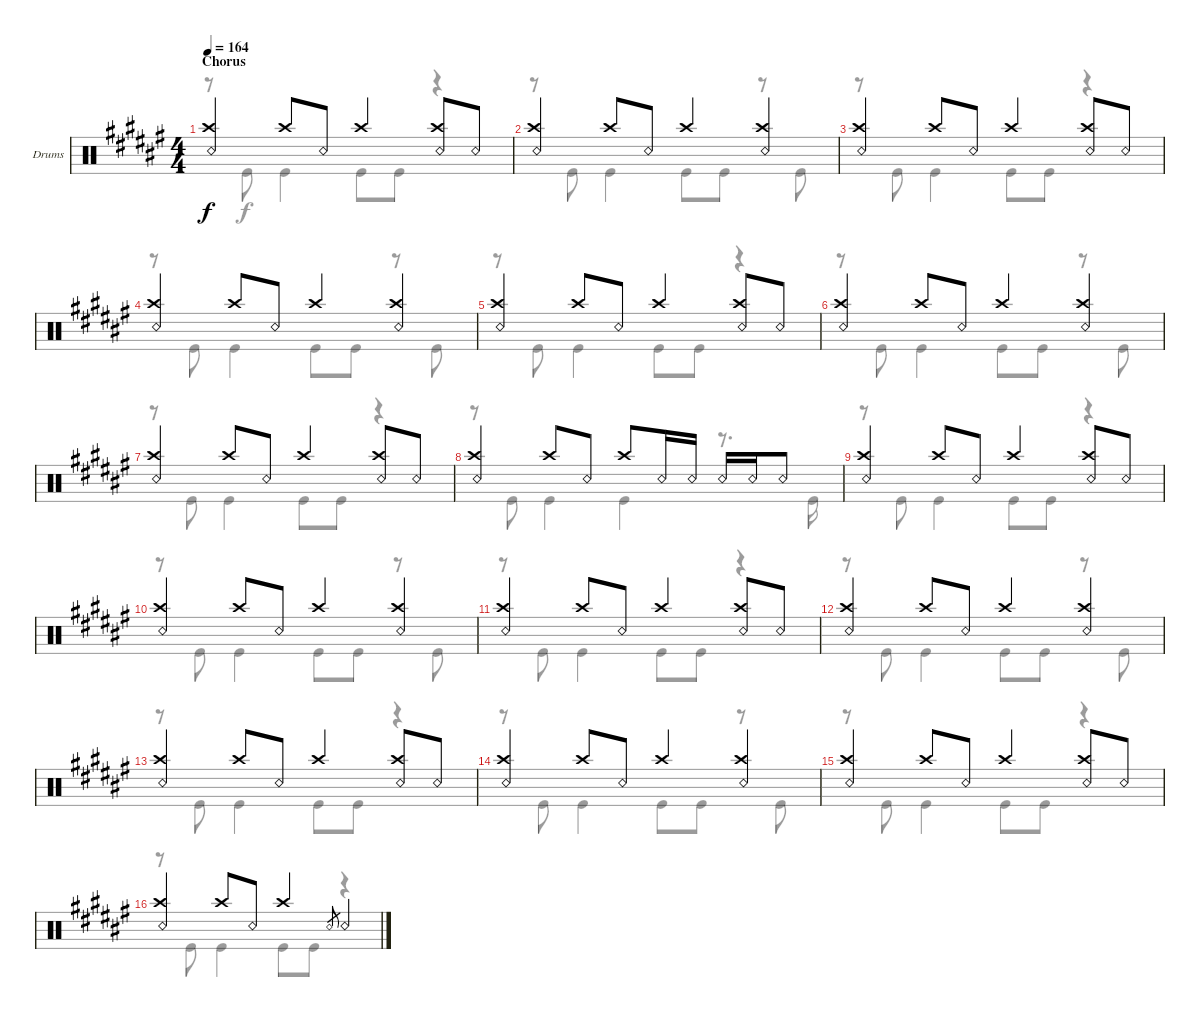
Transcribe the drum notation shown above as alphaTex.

\defaultSystemsLayout 4
\bracketExtendMode groupsimilarinstruments
\firstSystemTrackNameOrientation horizontal
\otherSystemsTrackNameOrientation horizontal
\track ("Drums" "Drums") {instrument percussion}
\staff {score}
\articulation defaults
\voice
\ts (4 4)
\section ("" "Chorus")
\tempo 164
\clef neutral
\ks f#
("Snare (rim shot)" "Crash high (hit)").4{dy f} "Crash high (hit)".8 "Snare (rim shot)".8 "Crash high (hit)".4 ("Snare (rim shot)" "Crash high (hit)").8 "Snare (rim shot)".8 |
("Snare (rim shot)" "Crash high (hit)").4 "Crash high (hit)".8 "Snare (rim shot)".8 "Crash high (hit)".4 ("Snare (rim shot)" "Crash high (hit)").4 |
("Snare (rim shot)" "Crash high (hit)").4 "Crash high (hit)".8 "Snare (rim shot)".8 "Crash high (hit)".4 ("Snare (rim shot)" "Crash high (hit)").8 "Snare (rim shot)".8 |
("Snare (rim shot)" "Crash high (hit)").4 "Crash high (hit)".8 "Snare (rim shot)".8 "Crash high (hit)".4 ("Snare (rim shot)" "Crash high (hit)").4 |
("Snare (rim shot)" "Crash high (hit)").4 "Crash high (hit)".8 "Snare (rim shot)".8 "Crash high (hit)".4 ("Snare (rim shot)" "Crash high (hit)").8 "Snare (rim shot)".8 |
("Snare (rim shot)" "Crash high (hit)").4 "Crash high (hit)".8 "Snare (rim shot)".8 "Crash high (hit)".4 ("Snare (rim shot)" "Crash high (hit)").4 |
("Snare (rim shot)" "Crash high (hit)").4 "Crash high (hit)".8 "Snare (rim shot)".8 "Crash high (hit)".4 ("Snare (rim shot)" "Crash high (hit)").8 "Snare (rim shot)".8 |
("Snare (rim shot)" "Crash high (hit)").4 "Crash high (hit)".8 "Snare (rim shot)".8 "Crash high (hit)".8 "Snare (rim shot)".16 "Snare (rim shot)".16 "Snare (rim shot)".16 "Snare (rim shot)".16 "Snare (rim shot)".8 |
("Snare (rim shot)" "Crash high (hit)").4 "Crash high (hit)".8 "Snare (rim shot)".8 "Crash high (hit)".4 ("Snare (rim shot)" "Crash high (hit)").8 "Snare (rim shot)".8 |
("Snare (rim shot)" "Crash high (hit)").4 "Crash high (hit)".8 "Snare (rim shot)".8 "Crash high (hit)".4 ("Snare (rim shot)" "Crash high (hit)").4 |
("Snare (rim shot)" "Crash high (hit)").4 "Crash high (hit)".8 "Snare (rim shot)".8 "Crash high (hit)".4 ("Snare (rim shot)" "Crash high (hit)").8 "Snare (rim shot)".8 |
("Snare (rim shot)" "Crash high (hit)").4 "Crash high (hit)".8 "Snare (rim shot)".8 "Crash high (hit)".4 ("Snare (rim shot)" "Crash high (hit)").4 |
("Snare (rim shot)" "Crash high (hit)").4 "Crash high (hit)".8 "Snare (rim shot)".8 "Crash high (hit)".4 ("Snare (rim shot)" "Crash high (hit)").8 "Snare (rim shot)".8 |
("Snare (rim shot)" "Crash high (hit)").4 "Crash high (hit)".8 "Snare (rim shot)".8 "Crash high (hit)".4 ("Snare (rim shot)" "Crash high (hit)").4 |
("Snare (rim shot)" "Crash high (hit)").4 "Crash high (hit)".8 "Snare (rim shot)".8 "Crash high (hit)".4 ("Snare (rim shot)" "Crash high (hit)").8 "Snare (rim shot)".8 |
("Snare (rim shot)" "Crash high (hit)").4 "Crash high (hit)".8 "Snare (rim shot)".8 "Crash high (hit)".4 "Snare (rim shot)".8{gr} "Snare (rim shot)".4
\voice
\clef neutral
\ottava regular
\simile none
\ks f#
r.8{dy f} "Kick (hit)".8 "Kick (hit)".4 "Kick (hit)".8 "Kick (hit)".8 r.4 |
r.8 "Kick (hit)".8 "Kick (hit)".4 "Kick (hit)".8 "Kick (hit)".8 r.8 "Kick (hit)".8 |
r.8 "Kick (hit)".8 "Kick (hit)".4 "Kick (hit)".8 "Kick (hit)".8 r.4 |
r.8 "Kick (hit)".8 "Kick (hit)".4 "Kick (hit)".8 "Kick (hit)".8 r.8 "Kick (hit)".8 |
r.8 "Kick (hit)".8 "Kick (hit)".4 "Kick (hit)".8 "Kick (hit)".8 r.4 |
r.8 "Kick (hit)".8 "Kick (hit)".4 "Kick (hit)".8 "Kick (hit)".8 r.8 "Kick (hit)".8 |
r.8 "Kick (hit)".8 "Kick (hit)".4 "Kick (hit)".8 "Kick (hit)".8 r.4 |
r.8 "Kick (hit)".8 "Kick (hit)".4 "Kick (hit)".4 r.8{d} "Kick (hit)".16 |
r.8 "Kick (hit)".8 "Kick (hit)".4 "Kick (hit)".8 "Kick (hit)".8 r.4 |
r.8 "Kick (hit)".8 "Kick (hit)".4 "Kick (hit)".8 "Kick (hit)".8 r.8 "Kick (hit)".8 |
r.8 "Kick (hit)".8 "Kick (hit)".4 "Kick (hit)".8 "Kick (hit)".8 r.4 |
r.8 "Kick (hit)".8 "Kick (hit)".4 "Kick (hit)".8 "Kick (hit)".8 r.8 "Kick (hit)".8 |
r.8 "Kick (hit)".8 "Kick (hit)".4 "Kick (hit)".8 "Kick (hit)".8 r.4 |
r.8 "Kick (hit)".8 "Kick (hit)".4 "Kick (hit)".8 "Kick (hit)".8 r.8 "Kick (hit)".8 |
r.8 "Kick (hit)".8 "Kick (hit)".4 "Kick (hit)".8 "Kick (hit)".8 r.4 |
r.8 "Kick (hit)".8 "Kick (hit)".4 "Kick (hit)".8 "Kick (hit)".8 r.4
